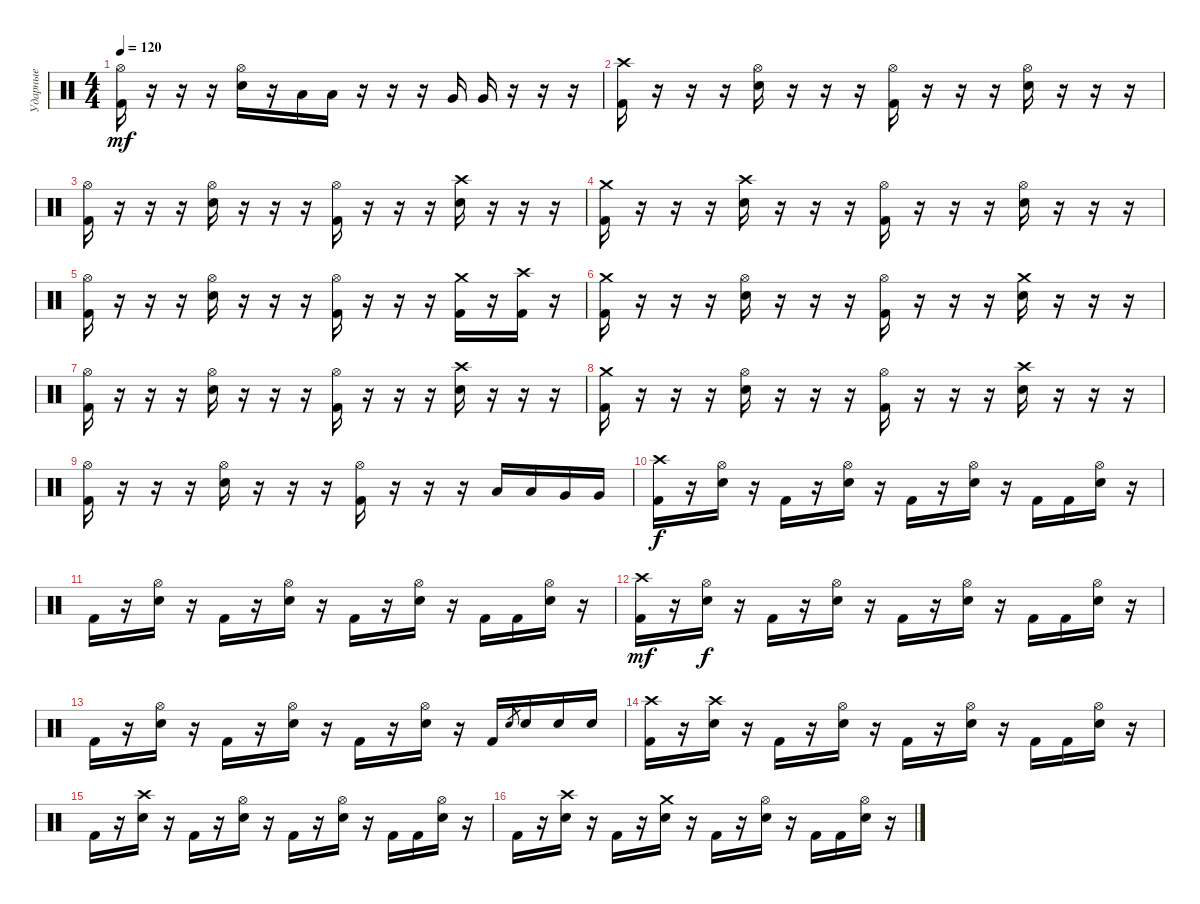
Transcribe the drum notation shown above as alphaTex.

\track ("Ударные" "Ударные") {instrument percussion}
\staff {score}
\articulation defaults
\ts (4 4)
\tempo 120
\clef neutral
\ks c
("Hi-Hat (open)" "Kick (hit) 2").16{dy mf} r.16 r.16 r.16 ("Hi-Hat (open)" "Electric Snare (hit)").16 r.16 "Low Tom (hit)".16 "Low Tom (hit)".16 r.16 r.16 r.16 "Very Low Tom (hit)".16 "Very Low Tom (hit)".16 r.16 r.16 r.16 |
("Crash high (hit)" "Kick (hit) 2").16 r.16 r.16 r.16 ("Hi-Hat (open)" "Electric Snare (hit)").16 r.16 r.16 r.16 ("Hi-Hat (open)" "Kick (hit) 2").16 r.16 r.16 r.16 ("Hi-Hat (open)" "Electric Snare (hit)").16 r.16 r.16 r.16 |
("Hi-Hat (open)" "Kick (hit) 2").16 r.16 r.16 r.16 ("Hi-Hat (open)" "Electric Snare (hit)").16 r.16 r.16 r.16 ("Hi-Hat (open)" "Kick (hit) 2").16 r.16 r.16 r.16 ("Crash high (hit)" "Electric Snare (hit)").16 r.16 r.16 r.16 |
("Crash medium (hit)" "Kick (hit) 2").16 r.16 r.16 r.16 ("Crash high (hit)" "Electric Snare (hit)").16 r.16 r.16 r.16 ("Hi-Hat (open)" "Kick (hit) 2").16 r.16 r.16 r.16 ("Hi-Hat (open)" "Electric Snare (hit)").16 r.16 r.16 r.16 |
("Hi-Hat (open)" "Kick (hit) 2").16 r.16 r.16 r.16 ("Hi-Hat (open)" "Electric Snare (hit)").16 r.16 r.16 r.16 ("Hi-Hat (open)" "Kick (hit) 2").16 r.16 r.16 r.16 ("Crash medium (hit)" "Kick (hit) 2").16 r.16 ("Crash high (hit)" "Kick (hit) 2").16 r.16 |
("Crash medium (hit)" "Kick (hit) 2").16 r.16 r.16 r.16 ("Hi-Hat (open)" "Electric Snare (hit)").16 r.16 r.16 r.16 ("Hi-Hat (open)" "Kick (hit) 2").16 r.16 r.16 r.16 ("Crash medium (hit)" "Electric Snare (hit)").16 r.16 r.16 r.16 |
("Hi-Hat (open)" "Kick (hit) 2").16 r.16 r.16 r.16 ("Hi-Hat (open)" "Electric Snare (hit)").16 r.16 r.16 r.16 ("Hi-Hat (open)" "Kick (hit) 2").16 r.16 r.16 r.16 ("Crash high (hit)" "Electric Snare (hit)").16 r.16 r.16 r.16 |
("Crash medium (hit)" "Kick (hit) 2").16 r.16 r.16 r.16 ("Hi-Hat (open)" "Electric Snare (hit)").16 r.16 r.16 r.16 ("Hi-Hat (open)" "Kick (hit) 2").16 r.16 r.16 r.16 ("Crash high (hit)" "Electric Snare (hit)").16 r.16 r.16 r.16 |
("Hi-Hat (open)" "Kick (hit) 2").16 r.16 r.16 r.16 ("Hi-Hat (open)" "Electric Snare (hit)").16 r.16 r.16 r.16 ("Hi-Hat (open)" "Kick (hit) 2").16 r.16 r.16 r.16 "Low Tom (hit)".16 "Low Tom (hit)".16 "Very Low Tom (hit)".16 "Very Low Tom (hit)".16 |
("Crash high (hit)" "Kick (hit) 2").16{dy f} r.16 ("Hi-Hat (open)" "Electric Snare (hit)").16 r.16 "Kick (hit) 2".16 r.16 ("Hi-Hat (open)" "Electric Snare (hit)").16 r.16 "Kick (hit) 2".16 r.16 ("Hi-Hat (open)" "Electric Snare (hit)").16 r.16 "Kick (hit) 2".16 "Kick (hit) 2".16 ("Hi-Hat (open)" "Electric Snare (hit)").16 r.16 |
"Kick (hit) 2".16 r.16 ("Hi-Hat (open)" "Electric Snare (hit)").16 r.16 "Kick (hit) 2".16 r.16 ("Hi-Hat (open)" "Electric Snare (hit)").16 r.16 "Kick (hit) 2".16 r.16 ("Hi-Hat (open)" "Electric Snare (hit)").16 r.16 "Kick (hit) 2".16 "Kick (hit) 2".16 ("Hi-Hat (open)" "Electric Snare (hit)").16 r.16 |
("Crash high (hit)" "Kick (hit) 2").16{dy mf} r.16 ("Hi-Hat (open)" "Electric Snare (hit)").16{dy f} r.16 "Kick (hit) 2".16 r.16 ("Hi-Hat (open)" "Electric Snare (hit)").16 r.16 "Kick (hit) 2".16 r.16 ("Hi-Hat (open)" "Electric Snare (hit)").16 r.16 "Kick (hit) 2".16 "Kick (hit) 2".16 ("Hi-Hat (open)" "Electric Snare (hit)").16 r.16 |
"Kick (hit) 2".16 r.16 ("Hi-Hat (open)" "Electric Snare (hit)").16 r.16 "Kick (hit) 2".16 r.16 ("Hi-Hat (open)" "Electric Snare (hit)").16 r.16 "Kick (hit) 2".16 r.16 ("Hi-Hat (open)" "Electric Snare (hit)").16 r.16 "Kick (hit) 2".16 "Electric Snare (hit)".8{gr} "Electric Snare (hit)".16 "Electric Snare (hit)".16 "Electric Snare (hit)".16 |
("Crash high (hit)" "Kick (hit) 2").16 r.16 ("Crash high (hit)" "Electric Snare (hit)").16 r.16 "Kick (hit) 2".16 r.16 ("Hi-Hat (open)" "Electric Snare (hit)").16 r.16 "Kick (hit) 2".16 r.16 ("Hi-Hat (open)" "Electric Snare (hit)").16 r.16 "Kick (hit) 2".16 "Kick (hit) 2".16 ("Hi-Hat (open)" "Electric Snare (hit)").16 r.16 |
"Kick (hit) 2".16 r.16 ("Crash high (hit)" "Electric Snare (hit)").16 r.16 "Kick (hit) 2".16 r.16 ("Hi-Hat (open)" "Electric Snare (hit)").16 r.16 "Kick (hit) 2".16 r.16 ("Hi-Hat (open)" "Electric Snare (hit)").16 r.16 "Kick (hit) 2".16 "Kick (hit) 2".16 ("Hi-Hat (open)" "Electric Snare (hit)").16 r.16 |
"Kick (hit) 2".16 r.16 ("Crash high (hit)" "Electric Snare (hit)").16 r.16 "Kick (hit) 2".16 r.16 ("Crash medium (hit)" "Electric Snare (hit)").16 r.16 "Kick (hit) 2".16 r.16 ("Hi-Hat (open)" "Electric Snare (hit)").16 r.16 "Kick (hit) 2".16 "Kick (hit) 2".16 ("Hi-Hat (open)" "Electric Snare (hit)").16 r.16
